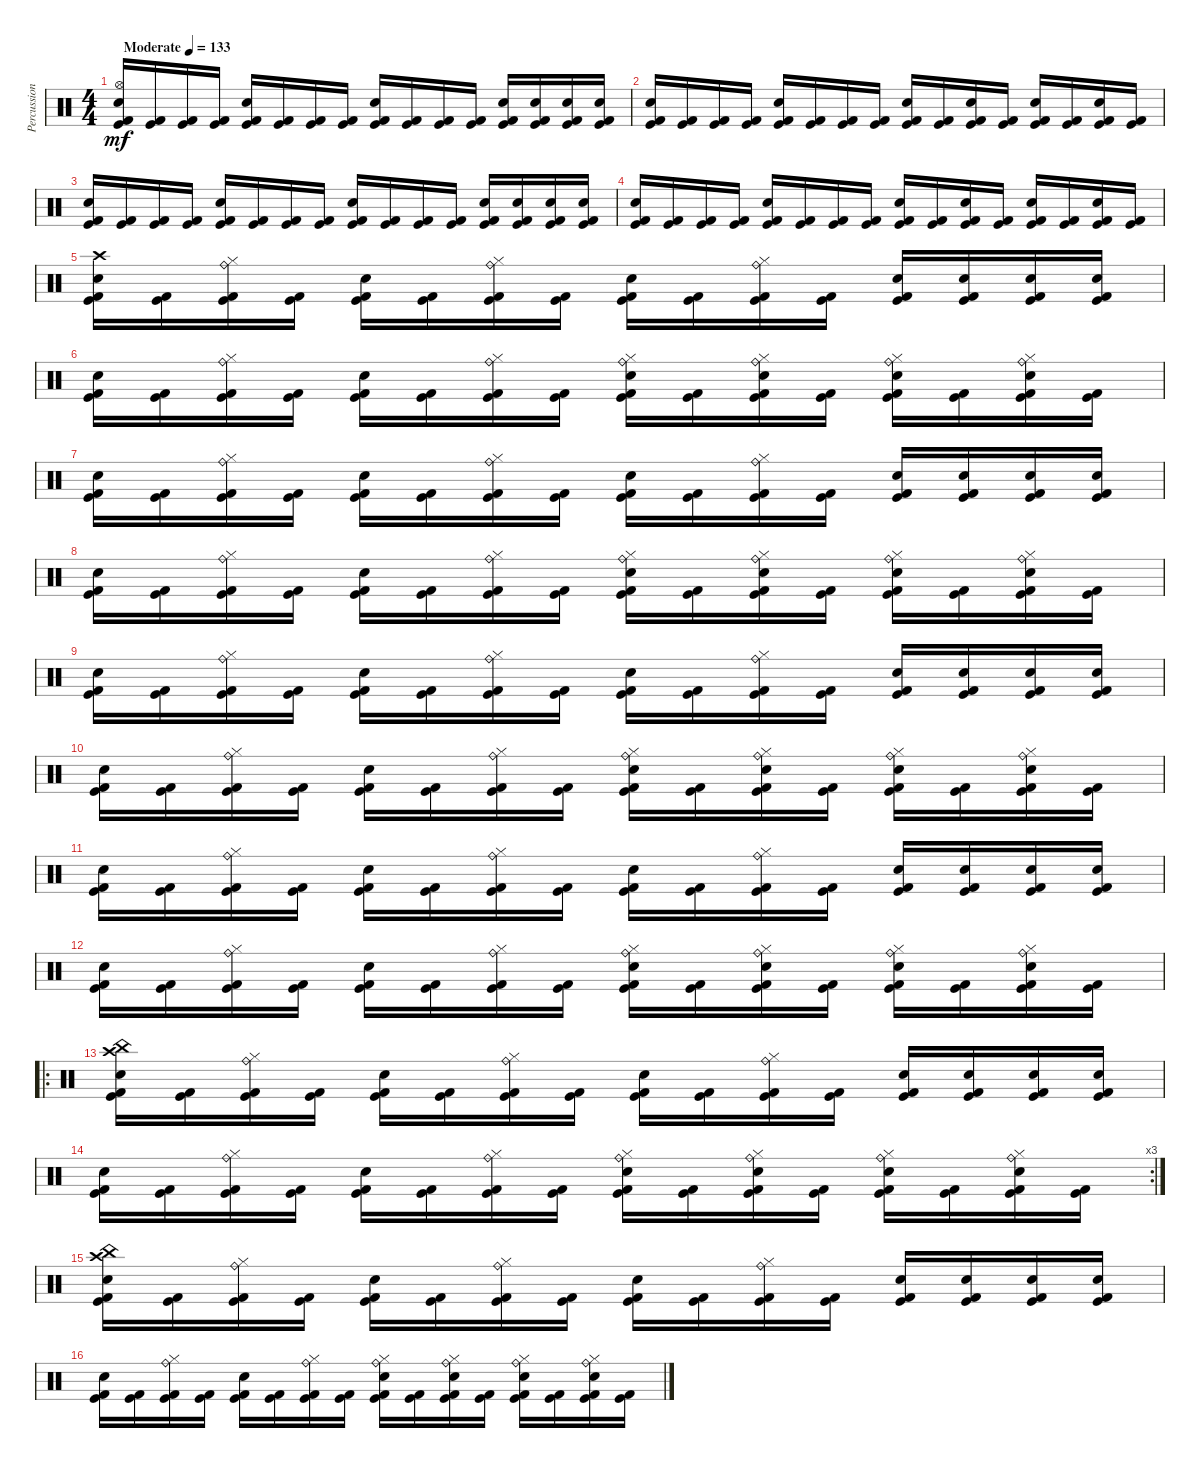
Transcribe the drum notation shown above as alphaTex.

\track ("Percussion" "Percussion") {instrument percussion}
\staff {score}
\articulation defaults
\ts (4 4)
\tempo (133 "Moderate")
\clef neutral
\ks c
("Kick (hit)" "Hi-Hat (open)" "Snare (hit) 2" "Kick (hit) 2").16{dy mf} ("Kick (hit)" "Kick (hit) 2").16 ("Kick (hit)" "Kick (hit) 2").16 ("Kick (hit)" "Kick (hit) 2").16 ("Kick (hit)" "Snare (hit) 2" "Kick (hit) 2").16 ("Kick (hit)" "Kick (hit) 2").16 ("Kick (hit)" "Kick (hit) 2").16 ("Kick (hit)" "Kick (hit) 2").16 ("Kick (hit)" "Snare (hit) 2" "Kick (hit) 2").16 ("Kick (hit)" "Kick (hit) 2").16 ("Kick (hit)" "Kick (hit) 2").16 ("Kick (hit)" "Kick (hit) 2").16 ("Kick (hit)" "Snare (hit) 2" "Kick (hit) 2").16 ("Kick (hit)" "Snare (hit) 2" "Kick (hit) 2").16 ("Kick (hit)" "Snare (hit) 2" "Kick (hit) 2").16 ("Kick (hit)" "Snare (hit) 2" "Kick (hit) 2").16 |
("Kick (hit)" "Snare (hit) 2" "Kick (hit) 2").16 ("Kick (hit)" "Kick (hit) 2").16 ("Kick (hit)" "Kick (hit) 2").16 ("Kick (hit)" "Kick (hit) 2").16 ("Kick (hit)" "Snare (hit) 2" "Kick (hit) 2").16 ("Kick (hit)" "Kick (hit) 2").16 ("Kick (hit)" "Kick (hit) 2").16 ("Kick (hit)" "Kick (hit) 2").16 ("Kick (hit)" "Snare (hit) 2" "Kick (hit) 2").16 ("Kick (hit)" "Kick (hit) 2").16 ("Kick (hit)" "Snare (hit) 2" "Kick (hit) 2").16 ("Kick (hit)" "Kick (hit) 2").16 ("Kick (hit)" "Snare (hit) 2" "Kick (hit) 2").16 ("Kick (hit)" "Kick (hit) 2").16 ("Kick (hit)" "Snare (hit) 2" "Kick (hit) 2").16 ("Kick (hit)" "Kick (hit) 2").16 |
("Kick (hit)" "Snare (hit) 2" "Kick (hit) 2").16 ("Kick (hit)" "Kick (hit) 2").16 ("Kick (hit)" "Kick (hit) 2").16 ("Kick (hit)" "Kick (hit) 2").16 ("Kick (hit)" "Snare (hit) 2" "Kick (hit) 2").16 ("Kick (hit)" "Kick (hit) 2").16 ("Kick (hit)" "Kick (hit) 2").16 ("Kick (hit)" "Kick (hit) 2").16 ("Kick (hit)" "Snare (hit) 2" "Kick (hit) 2").16 ("Kick (hit)" "Kick (hit) 2").16 ("Kick (hit)" "Kick (hit) 2").16 ("Kick (hit)" "Kick (hit) 2").16 ("Kick (hit)" "Snare (hit) 2" "Kick (hit) 2").16 ("Kick (hit)" "Snare (hit) 2" "Kick (hit) 2").16 ("Kick (hit)" "Snare (hit) 2" "Kick (hit) 2").16 ("Kick (hit)" "Snare (hit) 2" "Kick (hit) 2").16 |
("Kick (hit)" "Snare (hit) 2" "Kick (hit) 2").16 ("Kick (hit)" "Kick (hit) 2").16 ("Kick (hit)" "Kick (hit) 2").16 ("Kick (hit)" "Kick (hit) 2").16 ("Kick (hit)" "Snare (hit) 2" "Kick (hit) 2").16 ("Kick (hit)" "Kick (hit) 2").16 ("Kick (hit)" "Kick (hit) 2").16 ("Kick (hit)" "Kick (hit) 2").16 ("Kick (hit)" "Snare (hit) 2" "Kick (hit) 2").16 ("Kick (hit)" "Kick (hit) 2").16 ("Kick (hit)" "Snare (hit) 2" "Kick (hit) 2").16 ("Kick (hit)" "Kick (hit) 2").16 ("Kick (hit)" "Snare (hit) 2" "Kick (hit) 2").16 ("Kick (hit)" "Kick (hit) 2").16 ("Kick (hit)" "Snare (hit) 2" "Kick (hit) 2").16 ("Kick (hit)" "Kick (hit) 2").16 |
("Kick (hit)" "Crash high (hit)" "Snare (hit) 2" "Kick (hit) 2").16 ("Kick (hit)" "Kick (hit) 2").16 ("Kick (hit)" "Ride (bell)" "Hi-Hat (closed)" "Kick (hit) 2").16 ("Kick (hit)" "Kick (hit) 2").16 ("Kick (hit)" "Snare (hit) 2" "Kick (hit) 2").16 ("Kick (hit)" "Kick (hit) 2").16 ("Kick (hit)" "Ride (bell)" "Hi-Hat (closed)" "Kick (hit) 2").16 ("Kick (hit)" "Kick (hit) 2").16 ("Kick (hit)" "Snare (hit) 2" "Kick (hit) 2").16 ("Kick (hit)" "Kick (hit) 2").16 ("Kick (hit)" "Ride (bell)" "Hi-Hat (closed)" "Kick (hit) 2").16 ("Kick (hit)" "Kick (hit) 2").16 ("Kick (hit)" "Snare (hit) 2" "Kick (hit) 2").16 ("Kick (hit)" "Snare (hit) 2" "Kick (hit) 2").16 ("Kick (hit)" "Snare (hit) 2" "Kick (hit) 2").16 ("Kick (hit)" "Snare (hit) 2" "Kick (hit) 2").16 |
("Kick (hit)" "Snare (hit) 2" "Kick (hit) 2").16 ("Kick (hit)" "Kick (hit) 2").16 ("Kick (hit)" "Ride (bell)" "Hi-Hat (closed)" "Kick (hit) 2").16 ("Kick (hit)" "Kick (hit) 2").16 ("Kick (hit)" "Snare (hit) 2" "Kick (hit) 2").16 ("Kick (hit)" "Kick (hit) 2").16 ("Kick (hit)" "Ride (bell)" "Hi-Hat (closed)" "Kick (hit) 2").16 ("Kick (hit)" "Kick (hit) 2").16 ("Kick (hit)" "Hi-Hat (closed)" "Ride (bell)" "Snare (hit) 2" "Kick (hit) 2").16 ("Kick (hit)" "Kick (hit) 2").16 ("Kick (hit)" "Hi-Hat (closed)" "Ride (bell)" "Snare (hit) 2" "Kick (hit) 2").16 ("Kick (hit)" "Kick (hit) 2").16 ("Kick (hit)" "Hi-Hat (closed)" "Ride (bell)" "Snare (hit) 2" "Kick (hit) 2").16 ("Kick (hit)" "Kick (hit) 2").16 ("Kick (hit)" "Hi-Hat (closed)" "Ride (bell)" "Snare (hit) 2" "Kick (hit) 2").16 ("Kick (hit)" "Kick (hit) 2").16 |
("Kick (hit)" "Snare (hit) 2" "Kick (hit) 2").16 ("Kick (hit)" "Kick (hit) 2").16 ("Kick (hit)" "Ride (bell)" "Hi-Hat (closed)" "Kick (hit) 2").16 ("Kick (hit)" "Kick (hit) 2").16 ("Kick (hit)" "Snare (hit) 2" "Kick (hit) 2").16 ("Kick (hit)" "Kick (hit) 2").16 ("Kick (hit)" "Ride (bell)" "Hi-Hat (closed)" "Kick (hit) 2").16 ("Kick (hit)" "Kick (hit) 2").16 ("Kick (hit)" "Snare (hit) 2" "Kick (hit) 2").16 ("Kick (hit)" "Kick (hit) 2").16 ("Kick (hit)" "Ride (bell)" "Hi-Hat (closed)" "Kick (hit) 2").16 ("Kick (hit)" "Kick (hit) 2").16 ("Kick (hit)" "Snare (hit) 2" "Kick (hit) 2").16 ("Kick (hit)" "Snare (hit) 2" "Kick (hit) 2").16 ("Kick (hit)" "Snare (hit) 2" "Kick (hit) 2").16 ("Kick (hit)" "Snare (hit) 2" "Kick (hit) 2").16 |
("Kick (hit)" "Snare (hit) 2" "Kick (hit) 2").16 ("Kick (hit)" "Kick (hit) 2").16 ("Kick (hit)" "Ride (bell)" "Hi-Hat (closed)" "Kick (hit) 2").16 ("Kick (hit)" "Kick (hit) 2").16 ("Kick (hit)" "Snare (hit) 2" "Kick (hit) 2").16 ("Kick (hit)" "Kick (hit) 2").16 ("Kick (hit)" "Ride (bell)" "Hi-Hat (closed)" "Kick (hit) 2").16 ("Kick (hit)" "Kick (hit) 2").16 ("Kick (hit)" "Hi-Hat (closed)" "Ride (bell)" "Snare (hit) 2" "Kick (hit) 2").16 ("Kick (hit)" "Kick (hit) 2").16 ("Kick (hit)" "Hi-Hat (closed)" "Ride (bell)" "Snare (hit) 2" "Kick (hit) 2").16 ("Kick (hit)" "Kick (hit) 2").16 ("Kick (hit)" "Hi-Hat (closed)" "Ride (bell)" "Snare (hit) 2" "Kick (hit) 2").16 ("Kick (hit)" "Kick (hit) 2").16 ("Kick (hit)" "Hi-Hat (closed)" "Ride (bell)" "Snare (hit) 2" "Kick (hit) 2").16 ("Kick (hit)" "Kick (hit) 2").16 |
("Kick (hit)" "Snare (hit) 2" "Kick (hit) 2").16 ("Kick (hit)" "Kick (hit) 2").16 ("Kick (hit)" "Ride (bell)" "Hi-Hat (closed)" "Kick (hit) 2").16 ("Kick (hit)" "Kick (hit) 2").16 ("Kick (hit)" "Snare (hit) 2" "Kick (hit) 2").16 ("Kick (hit)" "Kick (hit) 2").16 ("Kick (hit)" "Ride (bell)" "Hi-Hat (closed)" "Kick (hit) 2").16 ("Kick (hit)" "Kick (hit) 2").16 ("Kick (hit)" "Snare (hit) 2" "Kick (hit) 2").16 ("Kick (hit)" "Kick (hit) 2").16 ("Kick (hit)" "Ride (bell)" "Hi-Hat (closed)" "Kick (hit) 2").16 ("Kick (hit)" "Kick (hit) 2").16 ("Kick (hit)" "Snare (hit) 2" "Kick (hit) 2").16 ("Kick (hit)" "Snare (hit) 2" "Kick (hit) 2").16 ("Kick (hit)" "Snare (hit) 2" "Kick (hit) 2").16 ("Kick (hit)" "Snare (hit) 2" "Kick (hit) 2").16 |
("Kick (hit)" "Snare (hit) 2" "Kick (hit) 2").16 ("Kick (hit)" "Kick (hit) 2").16 ("Kick (hit)" "Ride (bell)" "Hi-Hat (closed)" "Kick (hit) 2").16 ("Kick (hit)" "Kick (hit) 2").16 ("Kick (hit)" "Snare (hit) 2" "Kick (hit) 2").16 ("Kick (hit)" "Kick (hit) 2").16 ("Kick (hit)" "Ride (bell)" "Hi-Hat (closed)" "Kick (hit) 2").16 ("Kick (hit)" "Kick (hit) 2").16 ("Kick (hit)" "Hi-Hat (closed)" "Ride (bell)" "Snare (hit) 2" "Kick (hit) 2").16 ("Kick (hit)" "Kick (hit) 2").16 ("Kick (hit)" "Hi-Hat (closed)" "Ride (bell)" "Snare (hit) 2" "Kick (hit) 2").16 ("Kick (hit)" "Kick (hit) 2").16 ("Kick (hit)" "Hi-Hat (closed)" "Ride (bell)" "Snare (hit) 2" "Kick (hit) 2").16 ("Kick (hit)" "Kick (hit) 2").16 ("Kick (hit)" "Hi-Hat (closed)" "Ride (bell)" "Snare (hit) 2" "Kick (hit) 2").16 ("Kick (hit)" "Kick (hit) 2").16 |
("Kick (hit)" "Snare (hit) 2" "Kick (hit) 2").16 ("Kick (hit)" "Kick (hit) 2").16 ("Kick (hit)" "Ride (bell)" "Hi-Hat (closed)" "Kick (hit) 2").16 ("Kick (hit)" "Kick (hit) 2").16 ("Kick (hit)" "Snare (hit) 2" "Kick (hit) 2").16 ("Kick (hit)" "Kick (hit) 2").16 ("Kick (hit)" "Ride (bell)" "Hi-Hat (closed)" "Kick (hit) 2").16 ("Kick (hit)" "Kick (hit) 2").16 ("Kick (hit)" "Snare (hit) 2" "Kick (hit) 2").16 ("Kick (hit)" "Kick (hit) 2").16 ("Kick (hit)" "Ride (bell)" "Hi-Hat (closed)" "Kick (hit) 2").16 ("Kick (hit)" "Kick (hit) 2").16 ("Kick (hit)" "Snare (hit) 2" "Kick (hit) 2").16 ("Kick (hit)" "Snare (hit) 2" "Kick (hit) 2").16 ("Kick (hit)" "Snare (hit) 2" "Kick (hit) 2").16 ("Kick (hit)" "Snare (hit) 2" "Kick (hit) 2").16 |
("Kick (hit)" "Snare (hit) 2" "Kick (hit) 2").16 ("Kick (hit)" "Kick (hit) 2").16 ("Kick (hit)" "Ride (bell)" "Hi-Hat (closed)" "Kick (hit) 2").16 ("Kick (hit)" "Kick (hit) 2").16 ("Kick (hit)" "Snare (hit) 2" "Kick (hit) 2").16 ("Kick (hit)" "Kick (hit) 2").16 ("Kick (hit)" "Ride (bell)" "Hi-Hat (closed)" "Kick (hit) 2").16 ("Kick (hit)" "Kick (hit) 2").16 ("Kick (hit)" "Hi-Hat (closed)" "Ride (bell)" "Snare (hit) 2" "Kick (hit) 2").16 ("Kick (hit)" "Kick (hit) 2").16 ("Kick (hit)" "Hi-Hat (closed)" "Ride (bell)" "Snare (hit) 2" "Kick (hit) 2").16 ("Kick (hit)" "Kick (hit) 2").16 ("Kick (hit)" "Hi-Hat (closed)" "Ride (bell)" "Snare (hit) 2" "Kick (hit) 2").16 ("Kick (hit)" "Kick (hit) 2").16 ("Kick (hit)" "Hi-Hat (closed)" "Ride (bell)" "Snare (hit) 2" "Kick (hit) 2").16 ("Kick (hit)" "Kick (hit) 2").16 |
\ro
("Kick (hit)" "China (hit)" "Crash high (hit)" "Snare (hit) 2" "Kick (hit) 2").16 ("Kick (hit)" "Kick (hit) 2").16 ("Kick (hit)" "Ride (bell)" "Hi-Hat (closed)" "Kick (hit) 2").16 ("Kick (hit)" "Kick (hit) 2").16 ("Kick (hit)" "Snare (hit) 2" "Kick (hit) 2").16 ("Kick (hit)" "Kick (hit) 2").16 ("Kick (hit)" "Ride (bell)" "Hi-Hat (closed)" "Kick (hit) 2").16 ("Kick (hit)" "Kick (hit) 2").16 ("Kick (hit)" "Snare (hit) 2" "Kick (hit) 2").16 ("Kick (hit)" "Kick (hit) 2").16 ("Kick (hit)" "Ride (bell)" "Hi-Hat (closed)" "Kick (hit) 2").16 ("Kick (hit)" "Kick (hit) 2").16 ("Kick (hit)" "Snare (hit) 2" "Kick (hit) 2").16 ("Kick (hit)" "Snare (hit) 2" "Kick (hit) 2").16 ("Kick (hit)" "Snare (hit) 2" "Kick (hit) 2").16 ("Kick (hit)" "Snare (hit) 2" "Kick (hit) 2").16 |
\rc 3
("Kick (hit)" "Snare (hit) 2" "Kick (hit) 2").16 ("Kick (hit)" "Kick (hit) 2").16 ("Kick (hit)" "Ride (bell)" "Hi-Hat (closed)" "Kick (hit) 2").16 ("Kick (hit)" "Kick (hit) 2").16 ("Kick (hit)" "Snare (hit) 2" "Kick (hit) 2").16 ("Kick (hit)" "Kick (hit) 2").16 ("Kick (hit)" "Ride (bell)" "Hi-Hat (closed)" "Kick (hit) 2").16 ("Kick (hit)" "Kick (hit) 2").16 ("Kick (hit)" "Hi-Hat (closed)" "Ride (bell)" "Snare (hit) 2" "Kick (hit) 2").16 ("Kick (hit)" "Kick (hit) 2").16 ("Kick (hit)" "Hi-Hat (closed)" "Ride (bell)" "Snare (hit) 2" "Kick (hit) 2").16 ("Kick (hit)" "Kick (hit) 2").16 ("Kick (hit)" "Hi-Hat (closed)" "Ride (bell)" "Snare (hit) 2" "Kick (hit) 2").16 ("Kick (hit)" "Kick (hit) 2").16 ("Kick (hit)" "Hi-Hat (closed)" "Ride (bell)" "Snare (hit) 2" "Kick (hit) 2").16 ("Kick (hit)" "Kick (hit) 2").16 |
("Kick (hit)" "China (hit)" "Crash high (hit)" "Snare (hit) 2" "Kick (hit) 2").16 ("Kick (hit)" "Kick (hit) 2").16 ("Kick (hit)" "Ride (bell)" "Hi-Hat (closed)" "Kick (hit) 2").16 ("Kick (hit)" "Kick (hit) 2").16 ("Kick (hit)" "Snare (hit) 2" "Kick (hit) 2").16 ("Kick (hit)" "Kick (hit) 2").16 ("Kick (hit)" "Ride (bell)" "Hi-Hat (closed)" "Kick (hit) 2").16 ("Kick (hit)" "Kick (hit) 2").16 ("Kick (hit)" "Snare (hit) 2" "Kick (hit) 2").16 ("Kick (hit)" "Kick (hit) 2").16 ("Kick (hit)" "Ride (bell)" "Hi-Hat (closed)" "Kick (hit) 2").16 ("Kick (hit)" "Kick (hit) 2").16 ("Kick (hit)" "Snare (hit) 2" "Kick (hit) 2").16 ("Kick (hit)" "Snare (hit) 2" "Kick (hit) 2").16 ("Kick (hit)" "Snare (hit) 2" "Kick (hit) 2").16 ("Kick (hit)" "Snare (hit) 2" "Kick (hit) 2").16 |
("Kick (hit)" "Snare (hit) 2" "Kick (hit) 2").16 ("Kick (hit)" "Kick (hit) 2").16 ("Kick (hit)" "Ride (bell)" "Hi-Hat (closed)" "Kick (hit) 2").16 ("Kick (hit)" "Kick (hit) 2").16 ("Kick (hit)" "Snare (hit) 2" "Kick (hit) 2").16 ("Kick (hit)" "Kick (hit) 2").16 ("Kick (hit)" "Ride (bell)" "Hi-Hat (closed)" "Kick (hit) 2").16 ("Kick (hit)" "Kick (hit) 2").16 ("Kick (hit)" "Hi-Hat (closed)" "Ride (bell)" "Snare (hit) 2" "Kick (hit) 2").16 ("Kick (hit)" "Kick (hit) 2").16 ("Kick (hit)" "Hi-Hat (closed)" "Ride (bell)" "Snare (hit) 2" "Kick (hit) 2").16 ("Kick (hit)" "Kick (hit) 2").16 ("Kick (hit)" "Hi-Hat (closed)" "Ride (bell)" "Snare (hit) 2" "Kick (hit) 2").16 ("Kick (hit)" "Kick (hit) 2").16 ("Kick (hit)" "Hi-Hat (closed)" "Ride (bell)" "Snare (hit) 2" "Kick (hit) 2").16 ("Kick (hit)" "Kick (hit) 2").16
